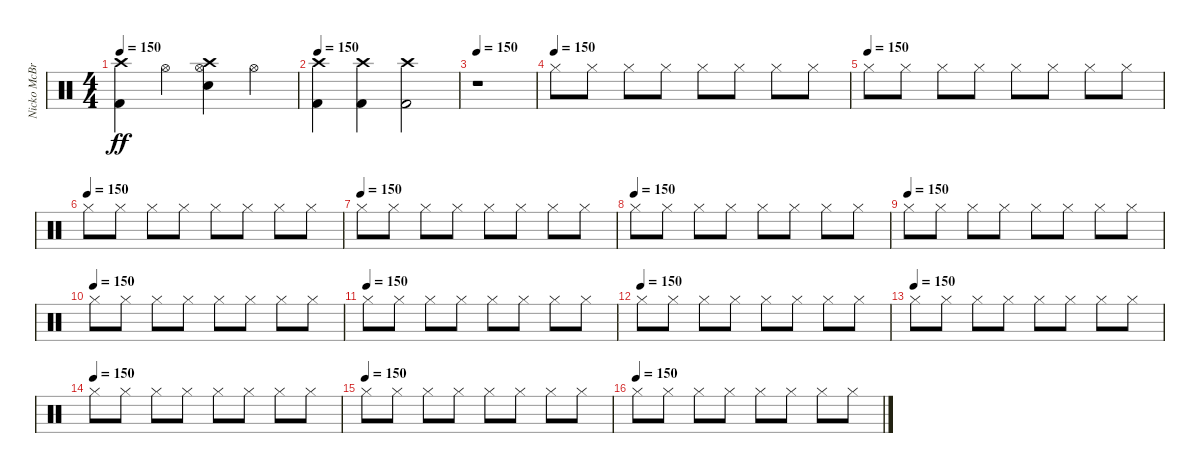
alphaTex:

\track ("Nicko McBrain" "Nicko McBr") {instrument percussion}
\staff {score}
\articulation defaults
\ts (4 4)
\tempo 150
\clef neutral
\ks c
("Kick (hit) 2" "Crash high (hit)").4{dy ff} "Hi-Hat (open)".4 ("Snare (hit) 2" "Hi-Hat (open)" "Crash high (hit)").4 "Hi-Hat (open)".4 |
\tempo 150
("Kick (hit) 2" "Crash high (hit)").4 ("Kick (hit) 2" "Crash high (hit)").4 ("Kick (hit) 2" "Crash high (hit)").2 |
\tempo 150
r.1 |
\tempo (150)
"Hi-Hat (closed)".8 "Hi-Hat (closed)".8 "Hi-Hat (closed)".8 "Hi-Hat (closed)".8 "Hi-Hat (closed)".8 "Hi-Hat (closed)".8 "Hi-Hat (closed)".8 "Hi-Hat (closed)".8 |
\tempo (150)
"Hi-Hat (closed)".8 "Hi-Hat (closed)".8 "Hi-Hat (closed)".8 "Hi-Hat (closed)".8 "Hi-Hat (closed)".8 "Hi-Hat (closed)".8 "Hi-Hat (closed)".8 "Hi-Hat (closed)".8 |
\tempo (150)
"Hi-Hat (closed)".8 "Hi-Hat (closed)".8 "Hi-Hat (closed)".8 "Hi-Hat (closed)".8 "Hi-Hat (closed)".8 "Hi-Hat (closed)".8 "Hi-Hat (closed)".8 "Hi-Hat (closed)".8 |
\tempo (150)
"Hi-Hat (closed)".8 "Hi-Hat (closed)".8 "Hi-Hat (closed)".8 "Hi-Hat (closed)".8 "Hi-Hat (closed)".8 "Hi-Hat (closed)".8 "Hi-Hat (closed)".8 "Hi-Hat (closed)".8 |
\tempo (150)
"Hi-Hat (closed)".8 "Hi-Hat (closed)".8 "Hi-Hat (closed)".8 "Hi-Hat (closed)".8 "Hi-Hat (closed)".8 "Hi-Hat (closed)".8 "Hi-Hat (closed)".8 "Hi-Hat (closed)".8 |
\tempo (150)
"Hi-Hat (closed)".8 "Hi-Hat (closed)".8 "Hi-Hat (closed)".8 "Hi-Hat (closed)".8 "Hi-Hat (closed)".8 "Hi-Hat (closed)".8 "Hi-Hat (closed)".8 "Hi-Hat (closed)".8 |
\tempo (150)
"Hi-Hat (closed)".8 "Hi-Hat (closed)".8 "Hi-Hat (closed)".8 "Hi-Hat (closed)".8 "Hi-Hat (closed)".8 "Hi-Hat (closed)".8 "Hi-Hat (closed)".8 "Hi-Hat (closed)".8 |
\tempo (150)
"Hi-Hat (closed)".8 "Hi-Hat (closed)".8 "Hi-Hat (closed)".8 "Hi-Hat (closed)".8 "Hi-Hat (closed)".8 "Hi-Hat (closed)".8 "Hi-Hat (closed)".8 "Hi-Hat (closed)".8 |
\tempo (150)
"Hi-Hat (closed)".8 "Hi-Hat (closed)".8 "Hi-Hat (closed)".8 "Hi-Hat (closed)".8 "Hi-Hat (closed)".8 "Hi-Hat (closed)".8 "Hi-Hat (closed)".8 "Hi-Hat (closed)".8 |
\tempo (150)
"Hi-Hat (closed)".8 "Hi-Hat (closed)".8 "Hi-Hat (closed)".8 "Hi-Hat (closed)".8 "Hi-Hat (closed)".8 "Hi-Hat (closed)".8 "Hi-Hat (closed)".8 "Hi-Hat (closed)".8 |
\tempo (150)
"Hi-Hat (closed)".8 "Hi-Hat (closed)".8 "Hi-Hat (closed)".8 "Hi-Hat (closed)".8 "Hi-Hat (closed)".8 "Hi-Hat (closed)".8 "Hi-Hat (closed)".8 "Hi-Hat (closed)".8 |
\tempo (150)
"Hi-Hat (closed)".8 "Hi-Hat (closed)".8 "Hi-Hat (closed)".8 "Hi-Hat (closed)".8 "Hi-Hat (closed)".8 "Hi-Hat (closed)".8 "Hi-Hat (closed)".8 "Hi-Hat (closed)".8 |
\tempo (150)
"Hi-Hat (closed)".8 "Hi-Hat (closed)".8 "Hi-Hat (closed)".8 "Hi-Hat (closed)".8 "Hi-Hat (closed)".8 "Hi-Hat (closed)".8 "Hi-Hat (closed)".8 "Hi-Hat (closed)".8
